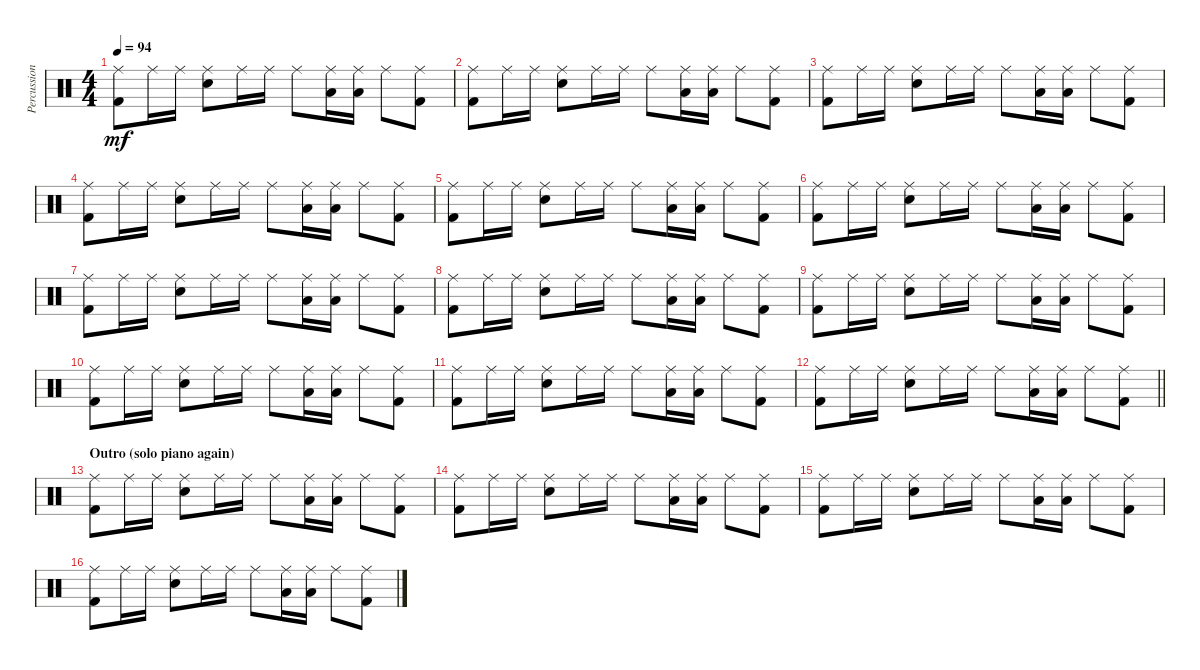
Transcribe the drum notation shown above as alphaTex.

\track ("Percussions" "Percussion") {instrument percussion}
\staff {score}
\articulation defaults
\ts (4 4)
\tempo 94
\clef neutral
\ks c
("Kick (hit) 2" "Ride (middle)").8{dy mf} "Ride (middle)".16 "Ride (middle)".16 ("Electric Snare (hit)" "Ride (middle)").8 "Ride (middle)".16 "Ride (middle)".16 "Ride (middle)".8 ("Low Tom (hit)" "Ride (middle)").16 ("Low Floor Tom (hit)" "Ride (middle)").16 "Ride (middle)".8 ("Kick (hit) 2" "Ride (middle)").8 |
("Kick (hit) 2" "Ride (middle)").8 "Ride (middle)".16 "Ride (middle)".16 ("Electric Snare (hit)" "Ride (middle)").8 "Ride (middle)".16 "Ride (middle)".16 "Ride (middle)".8 ("Low Tom (hit)" "Ride (middle)").16 ("Low Floor Tom (hit)" "Ride (middle)").16 "Ride (middle)".8 ("Kick (hit) 2" "Ride (middle)").8 |
("Kick (hit) 2" "Ride (middle)").8 "Ride (middle)".16 "Ride (middle)".16 ("Electric Snare (hit)" "Ride (middle)").8 "Ride (middle)".16 "Ride (middle)".16 "Ride (middle)".8 ("Low Tom (hit)" "Ride (middle)").16 ("Low Floor Tom (hit)" "Ride (middle)").16 "Ride (middle)".8 ("Kick (hit) 2" "Ride (middle)").8 |
("Kick (hit) 2" "Ride (middle)").8 "Ride (middle)".16 "Ride (middle)".16 ("Electric Snare (hit)" "Ride (middle)").8 "Ride (middle)".16 "Ride (middle)".16 "Ride (middle)".8 ("Low Tom (hit)" "Ride (middle)").16 ("Low Floor Tom (hit)" "Ride (middle)").16 "Ride (middle)".8 ("Kick (hit) 2" "Ride (middle)").8 |
("Kick (hit) 2" "Ride (middle)").8 "Ride (middle)".16 "Ride (middle)".16 ("Electric Snare (hit)" "Ride (middle)").8 "Ride (middle)".16 "Ride (middle)".16 "Ride (middle)".8 ("Low Tom (hit)" "Ride (middle)").16 ("Low Floor Tom (hit)" "Ride (middle)").16 "Ride (middle)".8 ("Kick (hit) 2" "Ride (middle)").8 |
("Kick (hit) 2" "Ride (middle)").8 "Ride (middle)".16 "Ride (middle)".16 ("Electric Snare (hit)" "Ride (middle)").8 "Ride (middle)".16 "Ride (middle)".16 "Ride (middle)".8 ("Low Tom (hit)" "Ride (middle)").16 ("Low Floor Tom (hit)" "Ride (middle)").16 "Ride (middle)".8 ("Kick (hit) 2" "Ride (middle)").8 |
("Kick (hit) 2" "Ride (middle)").8 "Ride (middle)".16 "Ride (middle)".16 ("Electric Snare (hit)" "Ride (middle)").8 "Ride (middle)".16 "Ride (middle)".16 "Ride (middle)".8 ("Low Tom (hit)" "Ride (middle)").16 ("Low Floor Tom (hit)" "Ride (middle)").16 "Ride (middle)".8 ("Kick (hit) 2" "Ride (middle)").8 |
("Kick (hit) 2" "Ride (middle)").8 "Ride (middle)".16 "Ride (middle)".16 ("Electric Snare (hit)" "Ride (middle)").8 "Ride (middle)".16 "Ride (middle)".16 "Ride (middle)".8 ("Low Tom (hit)" "Ride (middle)").16 ("Low Floor Tom (hit)" "Ride (middle)").16 "Ride (middle)".8 ("Kick (hit) 2" "Ride (middle)").8 |
("Kick (hit) 2" "Ride (middle)").8 "Ride (middle)".16 "Ride (middle)".16 ("Electric Snare (hit)" "Ride (middle)").8 "Ride (middle)".16 "Ride (middle)".16 "Ride (middle)".8 ("Low Tom (hit)" "Ride (middle)").16 ("Low Floor Tom (hit)" "Ride (middle)").16 "Ride (middle)".8 ("Kick (hit) 2" "Ride (middle)").8 |
("Kick (hit) 2" "Ride (middle)").8 "Ride (middle)".16 "Ride (middle)".16 ("Electric Snare (hit)" "Ride (middle)").8 "Ride (middle)".16 "Ride (middle)".16 "Ride (middle)".8 ("Low Tom (hit)" "Ride (middle)").16 ("Low Floor Tom (hit)" "Ride (middle)").16 "Ride (middle)".8 ("Kick (hit) 2" "Ride (middle)").8 |
("Kick (hit) 2" "Ride (middle)").8 "Ride (middle)".16 "Ride (middle)".16 ("Electric Snare (hit)" "Ride (middle)").8 "Ride (middle)".16 "Ride (middle)".16 "Ride (middle)".8 ("Low Tom (hit)" "Ride (middle)").16 ("Low Floor Tom (hit)" "Ride (middle)").16 "Ride (middle)".8 ("Kick (hit) 2" "Ride (middle)").8 |
\barLineRight lightlight
("Kick (hit) 2" "Ride (middle)").8 "Ride (middle)".16 "Ride (middle)".16 ("Electric Snare (hit)" "Ride (middle)").8 "Ride (middle)".16 "Ride (middle)".16 "Ride (middle)".8 ("Low Tom (hit)" "Ride (middle)").16 ("Low Floor Tom (hit)" "Ride (middle)").16 "Ride (middle)".8 ("Kick (hit) 2" "Ride (middle)").8 |
\section ("" "Outro (solo piano again)")
("Kick (hit) 2" "Ride (middle)").8 "Ride (middle)".16 "Ride (middle)".16 ("Electric Snare (hit)" "Ride (middle)").8 "Ride (middle)".16 "Ride (middle)".16 "Ride (middle)".8 ("Low Tom (hit)" "Ride (middle)").16 ("Low Floor Tom (hit)" "Ride (middle)").16 "Ride (middle)".8 ("Kick (hit) 2" "Ride (middle)").8 |
("Kick (hit) 2" "Ride (middle)").8 "Ride (middle)".16 "Ride (middle)".16 ("Electric Snare (hit)" "Ride (middle)").8 "Ride (middle)".16 "Ride (middle)".16 "Ride (middle)".8 ("Low Tom (hit)" "Ride (middle)").16 ("Low Floor Tom (hit)" "Ride (middle)").16 "Ride (middle)".8 ("Kick (hit) 2" "Ride (middle)").8 |
("Kick (hit) 2" "Ride (middle)").8 "Ride (middle)".16 "Ride (middle)".16 ("Electric Snare (hit)" "Ride (middle)").8 "Ride (middle)".16 "Ride (middle)".16 "Ride (middle)".8 ("Low Tom (hit)" "Ride (middle)").16 ("Low Floor Tom (hit)" "Ride (middle)").16 "Ride (middle)".8 ("Kick (hit) 2" "Ride (middle)").8 |
("Kick (hit) 2" "Ride (middle)").8 "Ride (middle)".16 "Ride (middle)".16 ("Electric Snare (hit)" "Ride (middle)").8 "Ride (middle)".16 "Ride (middle)".16 "Ride (middle)".8 ("Low Tom (hit)" "Ride (middle)").16 ("Low Floor Tom (hit)" "Ride (middle)").16 "Ride (middle)".8 ("Kick (hit) 2" "Ride (middle)").8
